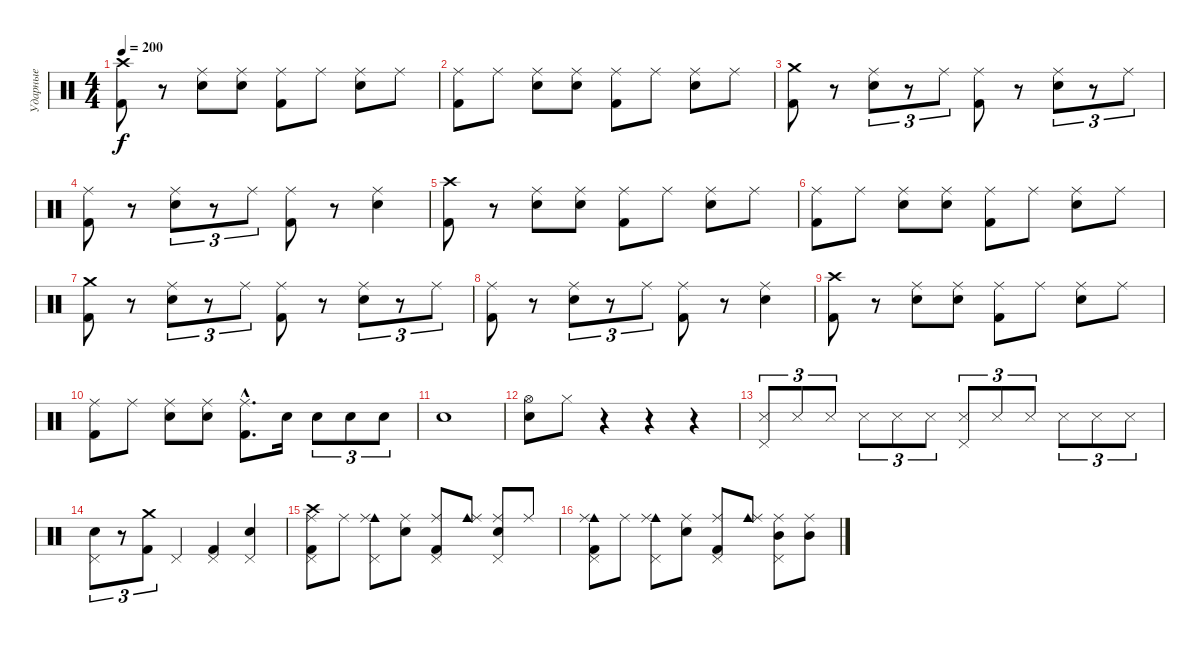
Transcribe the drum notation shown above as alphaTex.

\track ("Ударные" "Ударные") {instrument percussion}
\staff {score}
\articulation defaults
\ts (4 4)
\tempo 200
\clef neutral
\ks c
("Crash high (hit)" "Kick (hit) 2").8{dy f} r.8 ("Ride (middle)" "Electric Snare (hit)").8 ("Ride (middle)" "Electric Snare (hit)").8 ("Ride (middle)" "Kick (hit) 2").8 "Ride (middle)".8 ("Ride (middle)" "Electric Snare (hit)").8 "Ride (middle)".8 |
("Ride (middle)" "Kick (hit) 2").8 "Ride (middle)".8 ("Ride (middle)" "Electric Snare (hit)").8 ("Ride (middle)" "Electric Snare (hit)").8 ("Ride (middle)" "Kick (hit) 2").8 "Ride (middle)".8 ("Ride (middle)" "Electric Snare (hit)").8 "Ride (middle)".8 |
("Crash medium (hit)" "Kick (hit) 2").8 r.8 ("Ride (middle)" "Electric Snare (hit)").8{tu (3 2)} r.8{tu (3 2)} "Ride (middle)".8{tu (3 2)} ("Ride (middle)" "Kick (hit) 2").8 r.8 ("Ride (middle)" "Electric Snare (hit)").8{tu (3 2)} r.8{tu (3 2)} "Ride (middle)".8{tu (3 2)} |
("Ride (middle)" "Kick (hit) 2").8 r.8 ("Ride (middle)" "Electric Snare (hit)").8{tu (3 2)} r.8{tu (3 2)} "Ride (middle)".8{tu (3 2)} ("Ride (middle)" "Kick (hit) 2").8 r.8 ("Ride (middle)" "Electric Snare (hit)").4 |
("Crash high (hit)" "Kick (hit) 2").8 r.8 ("Ride (middle)" "Electric Snare (hit)").8 ("Ride (middle)" "Electric Snare (hit)").8 ("Ride (middle)" "Kick (hit) 2").8 "Ride (middle)".8 ("Ride (middle)" "Electric Snare (hit)").8 "Ride (middle)".8 |
("Ride (middle)" "Kick (hit) 2").8 "Ride (middle)".8 ("Ride (middle)" "Electric Snare (hit)").8 ("Ride (middle)" "Electric Snare (hit)").8 ("Ride (middle)" "Kick (hit) 2").8 "Ride (middle)".8 ("Ride (middle)" "Electric Snare (hit)").8 "Ride (middle)".8 |
("Crash medium (hit)" "Kick (hit) 2").8 r.8 ("Ride (middle)" "Electric Snare (hit)").8{tu (3 2)} r.8{tu (3 2)} "Ride (middle)".8{tu (3 2)} ("Ride (middle)" "Kick (hit) 2").8 r.8 ("Ride (middle)" "Electric Snare (hit)").8{tu (3 2)} r.8{tu (3 2)} "Ride (middle)".8{tu (3 2)} |
("Ride (middle)" "Kick (hit) 2").8 r.8 ("Ride (middle)" "Electric Snare (hit)").8{tu (3 2)} r.8{tu (3 2)} "Ride (middle)".8{tu (3 2)} ("Ride (middle)" "Kick (hit) 2").8 r.8 ("Ride (middle)" "Electric Snare (hit)").4 |
("Crash high (hit)" "Kick (hit) 2").8 r.8 ("Ride (middle)" "Electric Snare (hit)").8 ("Ride (middle)" "Electric Snare (hit)").8 ("Ride (middle)" "Kick (hit) 2").8 "Ride (middle)".8 ("Ride (middle)" "Electric Snare (hit)").8 "Ride (middle)".8 |
("Ride (middle)" "Kick (hit) 2").8 "Ride (middle)".8 ("Ride (middle)" "Electric Snare (hit)").8 ("Ride (middle)" "Electric Snare (hit)").8 ("Ride (middle)"{hac} "Kick (hit) 2"{hac}).8{d} "Electric Snare (hit)".16 "Electric Snare (hit)".8{tu (3 2)} "Electric Snare (hit)".8{tu (3 2)} "Electric Snare (hit)".8{tu (3 2)} |
"Electric Snare (hit)".1 |
("Hi-Hat (open)" "Electric Snare (hit)").8 "Hi-Hat (closed)".8 r.4 r.4 r.4 |
("Snare (side stick) 3" "Pedal Hi-Hat (hit)").8{tu (3 2)} "Snare (side stick) 3".8{tu (3 2)} "Snare (side stick) 3".8{tu (3 2)} "Snare (side stick) 3".8{tu (3 2)} "Snare (side stick) 3".8{tu (3 2)} "Snare (side stick) 3".8{tu (3 2)} ("Snare (side stick) 3" "Pedal Hi-Hat (hit)").8{tu (3 2)} "Snare (side stick) 3".8{tu (3 2)} "Snare (side stick) 3".8{tu (3 2)} "Snare (side stick) 3".8{tu (3 2)} "Snare (side stick) 3".8{tu (3 2)} "Snare (side stick) 3".8{tu (3 2)} |
("Electric Snare (hit)" "Pedal Hi-Hat (hit)").8{tu (3 2)} r.8{tu (3 2)} ("Crash medium (hit)" "Kick (hit) 2").8{tu (3 2)} "Pedal Hi-Hat (hit)".4 ("Kick (hit) 2" "Pedal Hi-Hat (hit)").4 ("Electric Snare (hit)" "Pedal Hi-Hat (hit)").4 |
("Crash high (hit)" "Ride (middle)" "Kick (hit) 2" "Pedal Hi-Hat (hit)").8 "Ride (middle)".8 ("Cowbell medium (hit)" "Ride (middle)" "Pedal Hi-Hat (hit)").8 ("Electric Snare (hit)" "Ride (middle)").8 ("Ride (middle)" "Kick (hit) 2" "Pedal Hi-Hat (hit)").8 ("Cowbell medium (hit)" "Ride (middle)").8 ("Electric Snare (hit)" "Ride (middle)" "Pedal Hi-Hat (hit)").8 "Ride (middle)".8 |
("Cowbell medium (hit)" "Ride (middle)" "Kick (hit) 2" "Pedal Hi-Hat (hit)").8 "Ride (middle)".8 ("Cowbell medium (hit)" "Ride (middle)" "Pedal Hi-Hat (hit)").8 ("Electric Snare (hit)" "Ride (middle)").8 ("Ride (middle)" "Kick (hit) 2" "Pedal Hi-Hat (hit)").8 ("Cowbell medium (hit)" "Ride (middle)").8 ("Mid Tom (hit)" "Ride (middle)" "Pedal Hi-Hat (hit)").8 ("Mid Tom (hit)" "Ride (middle)").8
